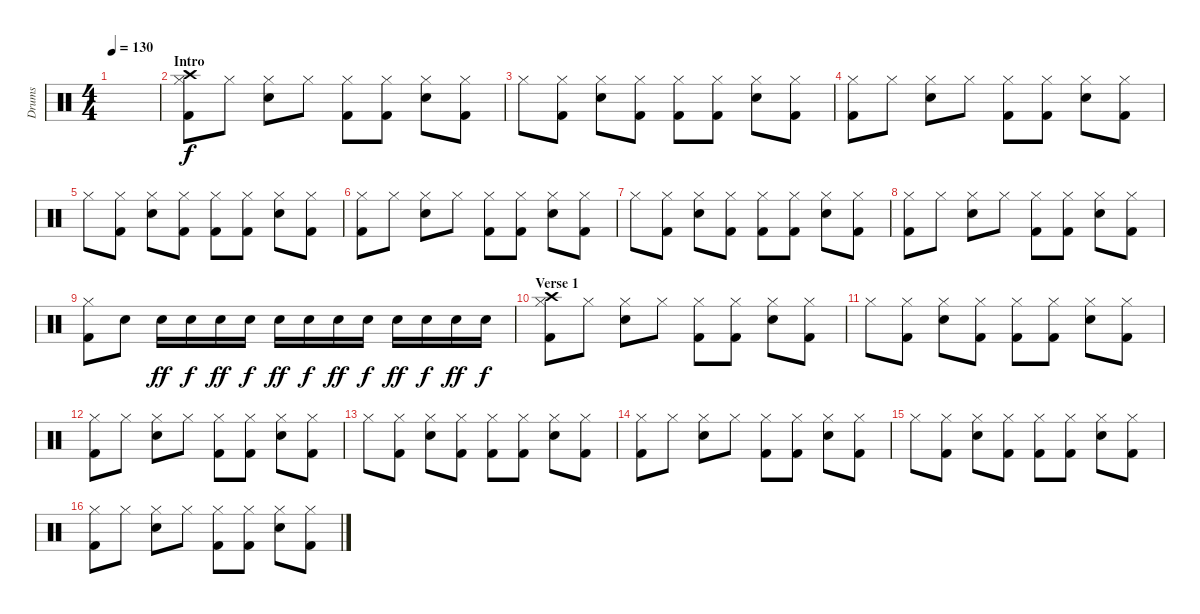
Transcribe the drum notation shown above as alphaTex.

\track ("Drums" "Drums") {instrument percussion}
\staff {score}
\articulation defaults
\ts (4 4)
\tempo 130
\clef neutral
\ks c
|
\section ("" "Intro")
("Hi-Hat (closed)" "Crash high (hit)" "Kick (hit) 2").8 "Hi-Hat (closed)".8 ("Hi-Hat (closed)" "Electric Snare (hit)").8 "Hi-Hat (closed)".8 ("Hi-Hat (closed)" "Kick (hit) 2").8 ("Hi-Hat (closed)" "Kick (hit) 2").8 ("Hi-Hat (closed)" "Electric Snare (hit)").8 ("Hi-Hat (closed)" "Kick (hit) 2").8 |
"Hi-Hat (closed)".8 ("Hi-Hat (closed)" "Kick (hit) 2").8 ("Hi-Hat (closed)" "Electric Snare (hit)").8 ("Hi-Hat (closed)" "Kick (hit) 2").8 ("Hi-Hat (closed)" "Kick (hit) 2").8 ("Hi-Hat (closed)" "Kick (hit) 2").8 ("Hi-Hat (closed)" "Electric Snare (hit)").8 ("Hi-Hat (closed)" "Kick (hit) 2").8 |
("Hi-Hat (closed)" "Kick (hit) 2").8 "Hi-Hat (closed)".8 ("Hi-Hat (closed)" "Electric Snare (hit)").8 "Hi-Hat (closed)".8 ("Hi-Hat (closed)" "Kick (hit) 2").8 ("Hi-Hat (closed)" "Kick (hit) 2").8 ("Hi-Hat (closed)" "Electric Snare (hit)").8 ("Hi-Hat (closed)" "Kick (hit) 2").8 |
"Hi-Hat (closed)".8 ("Hi-Hat (closed)" "Kick (hit) 2").8 ("Hi-Hat (closed)" "Electric Snare (hit)").8 ("Hi-Hat (closed)" "Kick (hit) 2").8 ("Hi-Hat (closed)" "Kick (hit) 2").8 ("Hi-Hat (closed)" "Kick (hit) 2").8 ("Hi-Hat (closed)" "Electric Snare (hit)").8 ("Hi-Hat (closed)" "Kick (hit) 2").8 |
("Hi-Hat (closed)" "Kick (hit) 2").8 "Hi-Hat (closed)".8 ("Hi-Hat (closed)" "Electric Snare (hit)").8 "Hi-Hat (closed)".8 ("Hi-Hat (closed)" "Kick (hit) 2").8 ("Hi-Hat (closed)" "Kick (hit) 2").8 ("Hi-Hat (closed)" "Electric Snare (hit)").8 ("Hi-Hat (closed)" "Kick (hit) 2").8 |
"Hi-Hat (closed)".8 ("Hi-Hat (closed)" "Kick (hit) 2").8 ("Hi-Hat (closed)" "Electric Snare (hit)").8 ("Hi-Hat (closed)" "Kick (hit) 2").8 ("Hi-Hat (closed)" "Kick (hit) 2").8 ("Hi-Hat (closed)" "Kick (hit) 2").8 ("Hi-Hat (closed)" "Electric Snare (hit)").8 ("Hi-Hat (closed)" "Kick (hit) 2").8 |
("Hi-Hat (closed)" "Kick (hit) 2").8 "Hi-Hat (closed)".8 ("Hi-Hat (closed)" "Electric Snare (hit)").8 "Hi-Hat (closed)".8 ("Hi-Hat (closed)" "Kick (hit) 2").8 ("Hi-Hat (closed)" "Kick (hit) 2").8 ("Hi-Hat (closed)" "Electric Snare (hit)").8 ("Hi-Hat (closed)" "Kick (hit) 2").8 |
("Hi-Hat (closed)" "Kick (hit) 2").8 "Electric Snare (hit)".8 "Electric Snare (hit)".16{dy ff} "Electric Snare (hit)".16{dy f} "Electric Snare (hit)".16{dy ff} "Electric Snare (hit)".16{dy f} "Electric Snare (hit)".16{dy ff} "Electric Snare (hit)".16{dy f} "Electric Snare (hit)".16{dy ff} "Electric Snare (hit)".16{dy f} "Electric Snare (hit)".16{dy ff} "Electric Snare (hit)".16{dy f} "Electric Snare (hit)".16{dy ff} "Electric Snare (hit)".16{dy f} |
\section ("" "Verse 1")
("Hi-Hat (closed)" "Crash high (hit)" "Kick (hit) 2").8 "Hi-Hat (closed)".8 ("Hi-Hat (closed)" "Electric Snare (hit)").8 "Hi-Hat (closed)".8 ("Hi-Hat (closed)" "Kick (hit) 2").8 ("Hi-Hat (closed)" "Kick (hit) 2").8 ("Hi-Hat (closed)" "Electric Snare (hit)").8 ("Hi-Hat (closed)" "Kick (hit) 2").8 |
"Hi-Hat (closed)".8 ("Hi-Hat (closed)" "Kick (hit) 2").8 ("Hi-Hat (closed)" "Electric Snare (hit)").8 ("Hi-Hat (closed)" "Kick (hit) 2").8 ("Hi-Hat (closed)" "Kick (hit) 2").8 ("Hi-Hat (closed)" "Kick (hit) 2").8 ("Hi-Hat (closed)" "Electric Snare (hit)").8 ("Hi-Hat (closed)" "Kick (hit) 2").8 |
("Hi-Hat (closed)" "Kick (hit) 2").8 "Hi-Hat (closed)".8 ("Hi-Hat (closed)" "Electric Snare (hit)").8 "Hi-Hat (closed)".8 ("Hi-Hat (closed)" "Kick (hit) 2").8 ("Hi-Hat (closed)" "Kick (hit) 2").8 ("Hi-Hat (closed)" "Electric Snare (hit)").8 ("Hi-Hat (closed)" "Kick (hit) 2").8 |
"Hi-Hat (closed)".8 ("Hi-Hat (closed)" "Kick (hit) 2").8 ("Hi-Hat (closed)" "Electric Snare (hit)").8 ("Hi-Hat (closed)" "Kick (hit) 2").8 ("Hi-Hat (closed)" "Kick (hit) 2").8 ("Hi-Hat (closed)" "Kick (hit) 2").8 ("Hi-Hat (closed)" "Electric Snare (hit)").8 ("Hi-Hat (closed)" "Kick (hit) 2").8 |
("Hi-Hat (closed)" "Kick (hit) 2").8 "Hi-Hat (closed)".8 ("Hi-Hat (closed)" "Electric Snare (hit)").8 "Hi-Hat (closed)".8 ("Hi-Hat (closed)" "Kick (hit) 2").8 ("Hi-Hat (closed)" "Kick (hit) 2").8 ("Hi-Hat (closed)" "Electric Snare (hit)").8 ("Hi-Hat (closed)" "Kick (hit) 2").8 |
"Hi-Hat (closed)".8 ("Hi-Hat (closed)" "Kick (hit) 2").8 ("Hi-Hat (closed)" "Electric Snare (hit)").8 ("Hi-Hat (closed)" "Kick (hit) 2").8 ("Hi-Hat (closed)" "Kick (hit) 2").8 ("Hi-Hat (closed)" "Kick (hit) 2").8 ("Hi-Hat (closed)" "Electric Snare (hit)").8 ("Hi-Hat (closed)" "Kick (hit) 2").8 |
("Hi-Hat (closed)" "Kick (hit) 2").8 "Hi-Hat (closed)".8 ("Hi-Hat (closed)" "Electric Snare (hit)").8 "Hi-Hat (closed)".8 ("Hi-Hat (closed)" "Kick (hit) 2").8 ("Hi-Hat (closed)" "Kick (hit) 2").8 ("Hi-Hat (closed)" "Electric Snare (hit)").8 ("Hi-Hat (closed)" "Kick (hit) 2").8
